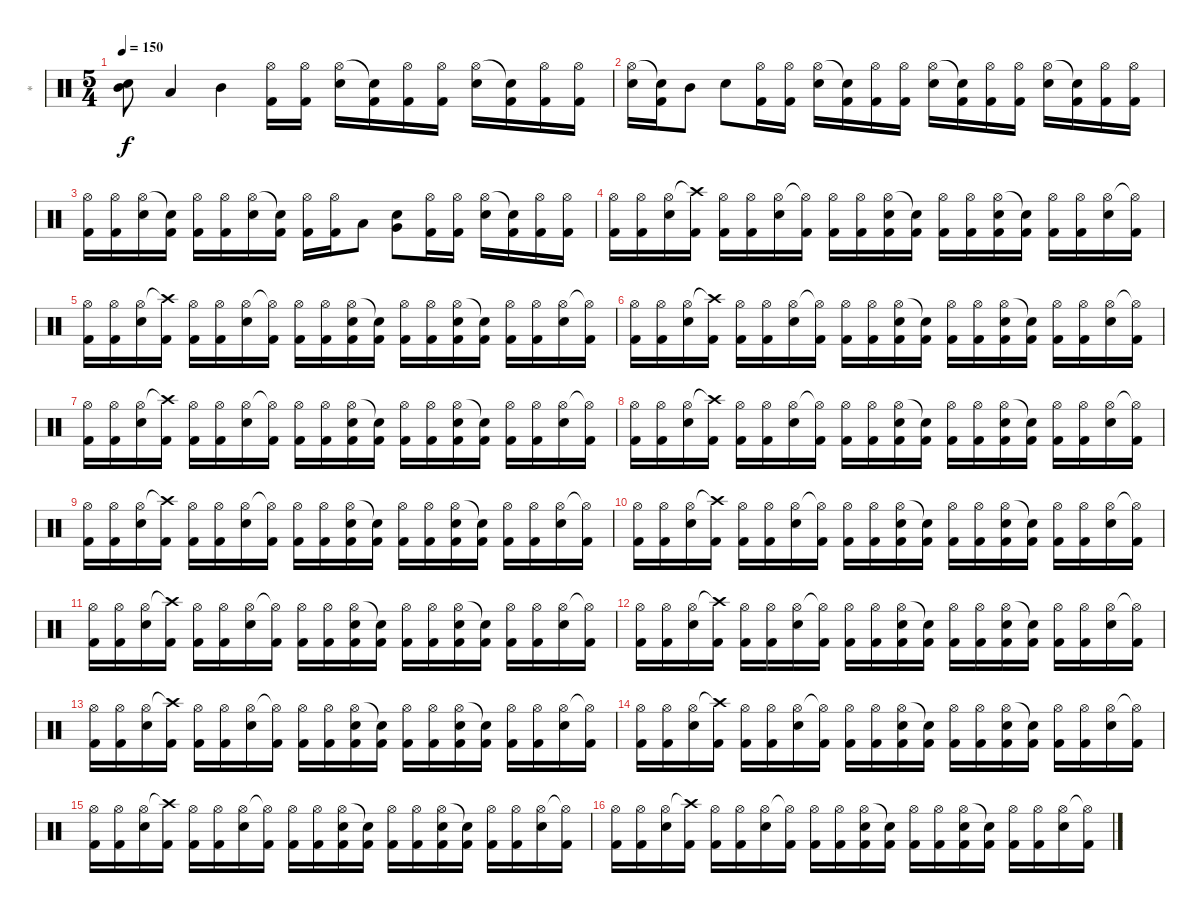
\track ("*" "*") {instrument percussion}
\staff {score}
\articulation defaults
\ts (5 4)
\tempo 150
\clef neutral
\ks c
("Mid Tom (hit)"{t} "Snare (hit)"{t}).8{dy f} "Low Tom (hit)".4 "Mid Tom (hit)".4 ("Hi-Hat (open)" "Kick (hit) 2").16 ("Hi-Hat (open)" "Kick (hit) 2").16 ("Hi-Hat (open)" "Electric Snare (hit)").16 ("Snare (hit)"{t} "Kick (hit) 2").16 ("Hi-Hat (open)" "Kick (hit) 2").16 ("Hi-Hat (open)" "Kick (hit) 2").16 ("Hi-Hat (open)" "Electric Snare (hit)").16 ("Snare (hit)"{t} "Kick (hit) 2").16 ("Hi-Hat (open)" "Kick (hit) 2").16 ("Hi-Hat (open)" "Kick (hit) 2").16 |
("Hi-Hat (open)" "Electric Snare (hit)").16 ("Snare (hit)"{t} "Kick (hit) 2").16 "Mid Tom (hit)".8 "Electric Snare (hit)".8 ("Hi-Hat (open)" "Kick (hit) 2").16 ("Hi-Hat (open)" "Kick (hit) 2").16 ("Hi-Hat (open)" "Electric Snare (hit)").16 ("Snare (hit)"{t} "Kick (hit) 2").16 ("Hi-Hat (open)" "Kick (hit) 2").16 ("Hi-Hat (open)" "Kick (hit) 2").16 ("Hi-Hat (open)" "Electric Snare (hit)").16 ("Snare (hit)"{t} "Kick (hit) 2").16 ("Hi-Hat (open)" "Kick (hit) 2").16 ("Hi-Hat (open)" "Kick (hit) 2").16 ("Hi-Hat (open)" "Electric Snare (hit)").16 ("Snare (hit)"{t} "Kick (hit) 2").16 ("Hi-Hat (open)" "Kick (hit) 2").16 ("Hi-Hat (open)" "Kick (hit) 2").16 |
("Hi-Hat (open)" "Kick (hit) 2").16 ("Hi-Hat (open)" "Kick (hit) 2").16 ("Hi-Hat (open)" "Electric Snare (hit)").16 ("Snare (hit)"{t} "Kick (hit) 2").16 ("Hi-Hat (open)" "Kick (hit) 2").16 ("Hi-Hat (open)" "Kick (hit) 2").16 ("Hi-Hat (open)" "Electric Snare (hit)").16 ("Snare (hit)"{t} "Kick (hit) 2").16 ("Hi-Hat (open)" "Kick (hit) 2").16 ("Hi-Hat (open)" "Kick (hit) 2").16 "Low Tom (hit)".8 ("Very Low Tom (hit)" "Snare (hit)"{x}).8 ("Hi-Hat (open)" "Kick (hit) 2").16 ("Hi-Hat (open)" "Kick (hit) 2").16 ("Hi-Hat (open)" "Electric Snare (hit)").16 ("Snare (hit)"{t} "Kick (hit) 2").16 ("Hi-Hat (open)" "Kick (hit) 2").16 ("Hi-Hat (open)" "Kick (hit) 2").16 |
("Hi-Hat (open)" "Kick (hit) 2").16 ("Hi-Hat (open)" "Kick (hit) 2").16 ("Hi-Hat (open)" "Electric Snare (hit)").16 ("Crash high (hit)"{t} "Kick (hit) 2").16 ("Hi-Hat (open)" "Kick (hit) 2").16 ("Hi-Hat (open)" "Kick (hit) 2").16 ("Hi-Hat (open)" "Electric Snare (hit)").16 ("Hi-Hat (open)"{t} "Kick (hit) 2").16 ("Hi-Hat (open)" "Kick (hit) 2").16 ("Hi-Hat (open)" "Kick (hit) 2").16 ("Hi-Hat (open)" "Electric Snare (hit)" "Kick (hit) 2"{x}).16 ("Snare (hit)"{t} "Kick (hit) 2").16 ("Hi-Hat (open)" "Kick (hit) 2").16 ("Hi-Hat (open)" "Kick (hit) 2").16 ("Hi-Hat (open)" "Electric Snare (hit)" "Kick (hit) 2"{x}).16 ("Snare (hit)"{t} "Kick (hit) 2").16 ("Hi-Hat (open)" "Kick (hit) 2").16 ("Hi-Hat (open)" "Kick (hit) 2").16 ("Hi-Hat (open)" "Electric Snare (hit)").16 ("Hi-Hat (open)"{t} "Kick (hit) 2").16 |
("Hi-Hat (open)" "Kick (hit) 2").16 ("Hi-Hat (open)" "Kick (hit) 2").16 ("Hi-Hat (open)" "Electric Snare (hit)").16 ("Crash high (hit)"{t} "Kick (hit) 2").16 ("Hi-Hat (open)" "Kick (hit) 2").16 ("Hi-Hat (open)" "Kick (hit) 2").16 ("Hi-Hat (open)" "Electric Snare (hit)").16 ("Hi-Hat (open)"{t} "Kick (hit) 2").16 ("Hi-Hat (open)" "Kick (hit) 2").16 ("Hi-Hat (open)" "Kick (hit) 2").16 ("Hi-Hat (open)" "Electric Snare (hit)" "Kick (hit) 2"{x}).16 ("Snare (hit)"{t} "Kick (hit) 2").16 ("Hi-Hat (open)" "Kick (hit) 2").16 ("Hi-Hat (open)" "Kick (hit) 2").16 ("Hi-Hat (open)" "Electric Snare (hit)" "Kick (hit) 2"{x}).16 ("Snare (hit)"{t} "Kick (hit) 2").16 ("Hi-Hat (open)" "Kick (hit) 2").16 ("Hi-Hat (open)" "Kick (hit) 2").16 ("Hi-Hat (open)" "Electric Snare (hit)").16 ("Hi-Hat (open)"{t} "Kick (hit) 2").16 |
("Hi-Hat (open)" "Kick (hit) 2").16 ("Hi-Hat (open)" "Kick (hit) 2").16 ("Hi-Hat (open)" "Electric Snare (hit)").16 ("Crash high (hit)"{t} "Kick (hit) 2").16 ("Hi-Hat (open)" "Kick (hit) 2").16 ("Hi-Hat (open)" "Kick (hit) 2").16 ("Hi-Hat (open)" "Electric Snare (hit)").16 ("Hi-Hat (open)"{t} "Kick (hit) 2").16 ("Hi-Hat (open)" "Kick (hit) 2").16 ("Hi-Hat (open)" "Kick (hit) 2").16 ("Hi-Hat (open)" "Electric Snare (hit)" "Kick (hit) 2"{x}).16 ("Snare (hit)"{t} "Kick (hit) 2").16 ("Hi-Hat (open)" "Kick (hit) 2").16 ("Hi-Hat (open)" "Kick (hit) 2").16 ("Hi-Hat (open)" "Electric Snare (hit)" "Kick (hit) 2"{x}).16 ("Snare (hit)"{t} "Kick (hit) 2").16 ("Hi-Hat (open)" "Kick (hit) 2").16 ("Hi-Hat (open)" "Kick (hit) 2").16 ("Hi-Hat (open)" "Electric Snare (hit)").16 ("Hi-Hat (open)"{t} "Kick (hit) 2").16 |
("Hi-Hat (open)" "Kick (hit) 2").16 ("Hi-Hat (open)" "Kick (hit) 2").16 ("Hi-Hat (open)" "Electric Snare (hit)").16 ("Crash high (hit)"{t} "Kick (hit) 2").16 ("Hi-Hat (open)" "Kick (hit) 2").16 ("Hi-Hat (open)" "Kick (hit) 2").16 ("Hi-Hat (open)" "Electric Snare (hit)").16 ("Hi-Hat (open)"{t} "Kick (hit) 2").16 ("Hi-Hat (open)" "Kick (hit) 2").16 ("Hi-Hat (open)" "Kick (hit) 2").16 ("Hi-Hat (open)" "Electric Snare (hit)" "Kick (hit) 2"{x}).16 ("Snare (hit)"{t} "Kick (hit) 2").16 ("Hi-Hat (open)" "Kick (hit) 2").16 ("Hi-Hat (open)" "Kick (hit) 2").16 ("Hi-Hat (open)" "Electric Snare (hit)" "Kick (hit) 2"{x}).16 ("Snare (hit)"{t} "Kick (hit) 2").16 ("Hi-Hat (open)" "Kick (hit) 2").16 ("Hi-Hat (open)" "Kick (hit) 2").16 ("Hi-Hat (open)" "Electric Snare (hit)").16 ("Hi-Hat (open)"{t} "Kick (hit) 2").16 |
("Hi-Hat (open)" "Kick (hit) 2").16 ("Hi-Hat (open)" "Kick (hit) 2").16 ("Hi-Hat (open)" "Electric Snare (hit)").16 ("Crash high (hit)"{t} "Kick (hit) 2").16 ("Hi-Hat (open)" "Kick (hit) 2").16 ("Hi-Hat (open)" "Kick (hit) 2").16 ("Hi-Hat (open)" "Electric Snare (hit)").16 ("Hi-Hat (open)"{t} "Kick (hit) 2").16 ("Hi-Hat (open)" "Kick (hit) 2").16 ("Hi-Hat (open)" "Kick (hit) 2").16 ("Hi-Hat (open)" "Electric Snare (hit)" "Kick (hit) 2"{x}).16 ("Snare (hit)"{t} "Kick (hit) 2").16 ("Hi-Hat (open)" "Kick (hit) 2").16 ("Hi-Hat (open)" "Kick (hit) 2").16 ("Hi-Hat (open)" "Electric Snare (hit)" "Kick (hit) 2"{x}).16 ("Snare (hit)"{t} "Kick (hit) 2").16 ("Hi-Hat (open)" "Kick (hit) 2").16 ("Hi-Hat (open)" "Kick (hit) 2").16 ("Hi-Hat (open)" "Electric Snare (hit)").16 ("Hi-Hat (open)"{t} "Kick (hit) 2").16 |
("Hi-Hat (open)" "Kick (hit) 2").16 ("Hi-Hat (open)" "Kick (hit) 2").16 ("Hi-Hat (open)" "Electric Snare (hit)").16 ("Crash high (hit)"{t} "Kick (hit) 2").16 ("Hi-Hat (open)" "Kick (hit) 2").16 ("Hi-Hat (open)" "Kick (hit) 2").16 ("Hi-Hat (open)" "Electric Snare (hit)").16 ("Hi-Hat (open)"{t} "Kick (hit) 2").16 ("Hi-Hat (open)" "Kick (hit) 2").16 ("Hi-Hat (open)" "Kick (hit) 2").16 ("Hi-Hat (open)" "Electric Snare (hit)" "Kick (hit) 2"{x}).16 ("Snare (hit)"{t} "Kick (hit) 2").16 ("Hi-Hat (open)" "Kick (hit) 2").16 ("Hi-Hat (open)" "Kick (hit) 2").16 ("Hi-Hat (open)" "Electric Snare (hit)" "Kick (hit) 2"{x}).16 ("Snare (hit)"{t} "Kick (hit) 2").16 ("Hi-Hat (open)" "Kick (hit) 2").16 ("Hi-Hat (open)" "Kick (hit) 2").16 ("Hi-Hat (open)" "Electric Snare (hit)").16 ("Hi-Hat (open)"{t} "Kick (hit) 2").16 |
("Hi-Hat (open)" "Kick (hit) 2").16 ("Hi-Hat (open)" "Kick (hit) 2").16 ("Hi-Hat (open)" "Electric Snare (hit)").16 ("Crash high (hit)"{t} "Kick (hit) 2").16 ("Hi-Hat (open)" "Kick (hit) 2").16 ("Hi-Hat (open)" "Kick (hit) 2").16 ("Hi-Hat (open)" "Electric Snare (hit)").16 ("Hi-Hat (open)"{t} "Kick (hit) 2").16 ("Hi-Hat (open)" "Kick (hit) 2").16 ("Hi-Hat (open)" "Kick (hit) 2").16 ("Hi-Hat (open)" "Electric Snare (hit)" "Kick (hit) 2"{x}).16 ("Snare (hit)"{t} "Kick (hit) 2").16 ("Hi-Hat (open)" "Kick (hit) 2").16 ("Hi-Hat (open)" "Kick (hit) 2").16 ("Hi-Hat (open)" "Electric Snare (hit)" "Kick (hit) 2"{x}).16 ("Snare (hit)"{t} "Kick (hit) 2").16 ("Hi-Hat (open)" "Kick (hit) 2").16 ("Hi-Hat (open)" "Kick (hit) 2").16 ("Hi-Hat (open)" "Electric Snare (hit)").16 ("Hi-Hat (open)"{t} "Kick (hit) 2").16 |
("Hi-Hat (open)" "Kick (hit) 2").16 ("Hi-Hat (open)" "Kick (hit) 2").16 ("Hi-Hat (open)" "Electric Snare (hit)").16 ("Crash high (hit)"{t} "Kick (hit) 2").16 ("Hi-Hat (open)" "Kick (hit) 2").16 ("Hi-Hat (open)" "Kick (hit) 2").16 ("Hi-Hat (open)" "Electric Snare (hit)").16 ("Hi-Hat (open)"{t} "Kick (hit) 2").16 ("Hi-Hat (open)" "Kick (hit) 2").16 ("Hi-Hat (open)" "Kick (hit) 2").16 ("Hi-Hat (open)" "Electric Snare (hit)" "Kick (hit) 2"{x}).16 ("Snare (hit)"{t} "Kick (hit) 2").16 ("Hi-Hat (open)" "Kick (hit) 2").16 ("Hi-Hat (open)" "Kick (hit) 2").16 ("Hi-Hat (open)" "Electric Snare (hit)" "Kick (hit) 2"{x}).16 ("Snare (hit)"{t} "Kick (hit) 2").16 ("Hi-Hat (open)" "Kick (hit) 2").16 ("Hi-Hat (open)" "Kick (hit) 2").16 ("Hi-Hat (open)" "Electric Snare (hit)").16 ("Hi-Hat (open)"{t} "Kick (hit) 2").16 |
("Hi-Hat (open)" "Kick (hit) 2").16 ("Hi-Hat (open)" "Kick (hit) 2").16 ("Hi-Hat (open)" "Electric Snare (hit)").16 ("Crash high (hit)"{t} "Kick (hit) 2").16 ("Hi-Hat (open)" "Kick (hit) 2").16 ("Hi-Hat (open)" "Kick (hit) 2").16 ("Hi-Hat (open)" "Electric Snare (hit)").16 ("Hi-Hat (open)"{t} "Kick (hit) 2").16 ("Hi-Hat (open)" "Kick (hit) 2").16 ("Hi-Hat (open)" "Kick (hit) 2").16 ("Hi-Hat (open)" "Electric Snare (hit)" "Kick (hit) 2"{x}).16 ("Snare (hit)"{t} "Kick (hit) 2").16 ("Hi-Hat (open)" "Kick (hit) 2").16 ("Hi-Hat (open)" "Kick (hit) 2").16 ("Hi-Hat (open)" "Electric Snare (hit)" "Kick (hit) 2"{x}).16 ("Snare (hit)"{t} "Kick (hit) 2").16 ("Hi-Hat (open)" "Kick (hit) 2").16 ("Hi-Hat (open)" "Kick (hit) 2").16 ("Hi-Hat (open)" "Electric Snare (hit)").16 ("Hi-Hat (open)"{t} "Kick (hit) 2").16 |
("Hi-Hat (open)" "Kick (hit) 2").16 ("Hi-Hat (open)" "Kick (hit) 2").16 ("Hi-Hat (open)" "Electric Snare (hit)").16 ("Crash high (hit)"{t} "Kick (hit) 2").16 ("Hi-Hat (open)" "Kick (hit) 2").16 ("Hi-Hat (open)" "Kick (hit) 2").16 ("Hi-Hat (open)" "Electric Snare (hit)").16 ("Hi-Hat (open)"{t} "Kick (hit) 2").16 ("Hi-Hat (open)" "Kick (hit) 2").16 ("Hi-Hat (open)" "Kick (hit) 2").16 ("Hi-Hat (open)" "Electric Snare (hit)" "Kick (hit) 2"{x}).16 ("Snare (hit)"{t} "Kick (hit) 2").16 ("Hi-Hat (open)" "Kick (hit) 2").16 ("Hi-Hat (open)" "Kick (hit) 2").16 ("Hi-Hat (open)" "Electric Snare (hit)" "Kick (hit) 2"{x}).16 ("Snare (hit)"{t} "Kick (hit) 2").16 ("Hi-Hat (open)" "Kick (hit) 2").16 ("Hi-Hat (open)" "Kick (hit) 2").16 ("Hi-Hat (open)" "Electric Snare (hit)").16 ("Hi-Hat (open)"{t} "Kick (hit) 2").16 |
("Hi-Hat (open)" "Kick (hit) 2").16 ("Hi-Hat (open)" "Kick (hit) 2").16 ("Hi-Hat (open)" "Electric Snare (hit)").16 ("Crash high (hit)"{t} "Kick (hit) 2").16 ("Hi-Hat (open)" "Kick (hit) 2").16 ("Hi-Hat (open)" "Kick (hit) 2").16 ("Hi-Hat (open)" "Electric Snare (hit)").16 ("Hi-Hat (open)"{t} "Kick (hit) 2").16 ("Hi-Hat (open)" "Kick (hit) 2").16 ("Hi-Hat (open)" "Kick (hit) 2").16 ("Hi-Hat (open)" "Electric Snare (hit)" "Kick (hit) 2"{x}).16 ("Snare (hit)"{t} "Kick (hit) 2").16 ("Hi-Hat (open)" "Kick (hit) 2").16 ("Hi-Hat (open)" "Kick (hit) 2").16 ("Hi-Hat (open)" "Electric Snare (hit)" "Kick (hit) 2"{x}).16 ("Snare (hit)"{t} "Kick (hit) 2").16 ("Hi-Hat (open)" "Kick (hit) 2").16 ("Hi-Hat (open)" "Kick (hit) 2").16 ("Hi-Hat (open)" "Electric Snare (hit)").16 ("Hi-Hat (open)"{t} "Kick (hit) 2").16 |
("Hi-Hat (open)" "Kick (hit) 2").16 ("Hi-Hat (open)" "Kick (hit) 2").16 ("Hi-Hat (open)" "Electric Snare (hit)").16 ("Crash high (hit)"{t} "Kick (hit) 2").16 ("Hi-Hat (open)" "Kick (hit) 2").16 ("Hi-Hat (open)" "Kick (hit) 2").16 ("Hi-Hat (open)" "Electric Snare (hit)").16 ("Hi-Hat (open)"{t} "Kick (hit) 2").16 ("Hi-Hat (open)" "Kick (hit) 2").16 ("Hi-Hat (open)" "Kick (hit) 2").16 ("Hi-Hat (open)" "Electric Snare (hit)" "Kick (hit) 2"{x}).16 ("Snare (hit)"{t} "Kick (hit) 2").16 ("Hi-Hat (open)" "Kick (hit) 2").16 ("Hi-Hat (open)" "Kick (hit) 2").16 ("Hi-Hat (open)" "Electric Snare (hit)" "Kick (hit) 2"{x}).16 ("Snare (hit)"{t} "Kick (hit) 2").16 ("Hi-Hat (open)" "Kick (hit) 2").16 ("Hi-Hat (open)" "Kick (hit) 2").16 ("Hi-Hat (open)" "Electric Snare (hit)").16 ("Hi-Hat (open)"{t} "Kick (hit) 2").16 |
("Hi-Hat (open)" "Kick (hit) 2").16 ("Hi-Hat (open)" "Kick (hit) 2").16 ("Hi-Hat (open)" "Electric Snare (hit)").16 ("Crash high (hit)"{t} "Kick (hit) 2").16 ("Hi-Hat (open)" "Kick (hit) 2").16 ("Hi-Hat (open)" "Kick (hit) 2").16 ("Hi-Hat (open)" "Electric Snare (hit)").16 ("Hi-Hat (open)"{t} "Kick (hit) 2").16 ("Hi-Hat (open)" "Kick (hit) 2").16 ("Hi-Hat (open)" "Kick (hit) 2").16 ("Hi-Hat (open)" "Electric Snare (hit)" "Kick (hit) 2"{x}).16 ("Snare (hit)"{t} "Kick (hit) 2").16 ("Hi-Hat (open)" "Kick (hit) 2").16 ("Hi-Hat (open)" "Kick (hit) 2").16 ("Hi-Hat (open)" "Electric Snare (hit)" "Kick (hit) 2"{x}).16 ("Snare (hit)"{t} "Kick (hit) 2").16 ("Hi-Hat (open)" "Kick (hit) 2").16 ("Hi-Hat (open)" "Kick (hit) 2").16 ("Hi-Hat (open)" "Electric Snare (hit)").16 ("Hi-Hat (open)"{t} "Kick (hit) 2").16
